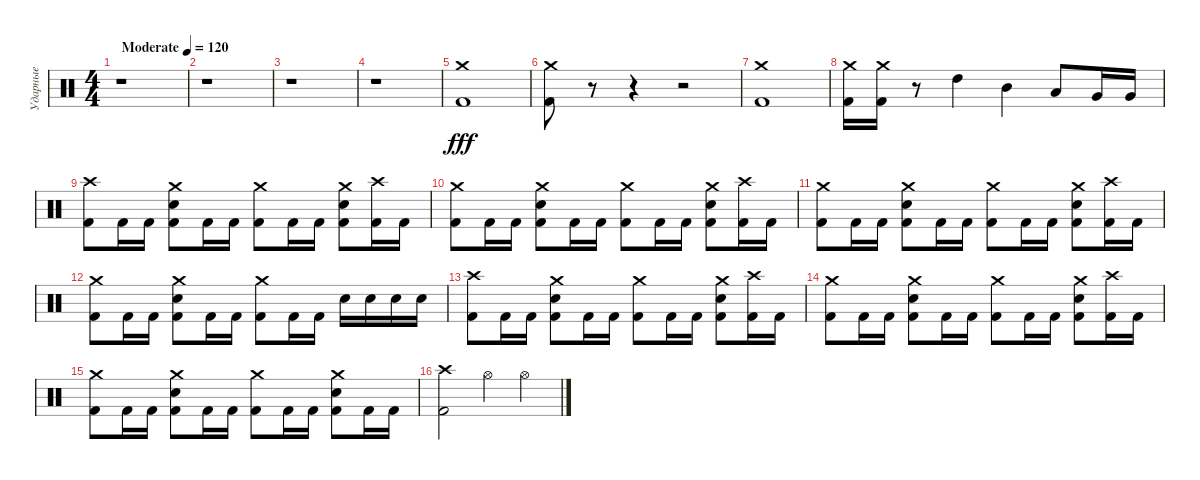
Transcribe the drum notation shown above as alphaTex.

\track ("Ударные" "Ударные") {instrument percussion}
\staff {score}
\articulation defaults
\ts (4 4)
\tempo (120 "Moderate")
\clef neutral
\ks c
r.1{dy fff} |
r.1 |
r.1 |
r.1 |
("Crash medium (hit)" "Kick (hit) 2").1 |
("Crash medium (hit)" "Kick (hit) 2").8 r.8 r.4 r.2 |
("Crash medium (hit)" "Kick (hit) 2").1 |
("Crash medium (hit)" "Kick (hit) 2").16 ("Crash medium (hit)" "Kick (hit) 2").16 r.8 "High Tom (hit)".4 "Mid Tom (hit)".4 "Low Tom (hit)".8 "Very Low Tom (hit)".16 "Very Low Tom (hit)".16 |
("Crash high (hit)" "Kick (hit) 2").8 "Kick (hit) 2".16 "Kick (hit) 2".16 ("Crash medium (hit)" "Electric Snare (hit)" "Kick (hit) 2").8 "Kick (hit) 2".16 "Kick (hit) 2".16 ("Crash medium (hit)" "Kick (hit) 2").8 "Kick (hit) 2".16 "Kick (hit) 2".16 ("Crash medium (hit)" "Electric Snare (hit)" "Kick (hit) 2").8 ("Crash high (hit)" "Kick (hit) 2").16 "Kick (hit) 2".16 |
("Crash medium (hit)" "Kick (hit) 2").8 "Kick (hit) 2".16 "Kick (hit) 2".16 ("Crash medium (hit)" "Electric Snare (hit)" "Kick (hit) 2").8 "Kick (hit) 2".16 "Kick (hit) 2".16 ("Crash medium (hit)" "Kick (hit) 2").8 "Kick (hit) 2".16 "Kick (hit) 2".16 ("Crash medium (hit)" "Electric Snare (hit)" "Kick (hit) 2").8 ("Crash high (hit)" "Kick (hit) 2").16 "Kick (hit) 2".16 |
("Crash medium (hit)" "Kick (hit) 2").8 "Kick (hit) 2".16 "Kick (hit) 2".16 ("Crash medium (hit)" "Electric Snare (hit)" "Kick (hit) 2").8 "Kick (hit) 2".16 "Kick (hit) 2".16 ("Crash medium (hit)" "Kick (hit) 2").8 "Kick (hit) 2".16 "Kick (hit) 2".16 ("Crash medium (hit)" "Electric Snare (hit)" "Kick (hit) 2").8 ("Crash high (hit)" "Kick (hit) 2").16 "Kick (hit) 2".16 |
("Crash medium (hit)" "Kick (hit) 2").8 "Kick (hit) 2".16 "Kick (hit) 2".16 ("Crash medium (hit)" "Electric Snare (hit)" "Kick (hit) 2").8 "Kick (hit) 2".16 "Kick (hit) 2".16 ("Crash medium (hit)" "Kick (hit) 2").8 "Kick (hit) 2".16 "Kick (hit) 2".16 "Electric Snare (hit)".16 "Electric Snare (hit)".16 "Electric Snare (hit)".16 "Electric Snare (hit)".16 |
("Crash high (hit)" "Kick (hit) 2").8 "Kick (hit) 2".16 "Kick (hit) 2".16 ("Crash medium (hit)" "Electric Snare (hit)" "Kick (hit) 2").8 "Kick (hit) 2".16 "Kick (hit) 2".16 ("Crash medium (hit)" "Kick (hit) 2").8 "Kick (hit) 2".16 "Kick (hit) 2".16 ("Crash medium (hit)" "Electric Snare (hit)" "Kick (hit) 2").8 ("Crash high (hit)" "Kick (hit) 2").16 "Kick (hit) 2".16 |
("Crash medium (hit)" "Kick (hit) 2").8 "Kick (hit) 2".16 "Kick (hit) 2".16 ("Crash medium (hit)" "Electric Snare (hit)" "Kick (hit) 2").8 "Kick (hit) 2".16 "Kick (hit) 2".16 ("Crash medium (hit)" "Kick (hit) 2").8 "Kick (hit) 2".16 "Kick (hit) 2".16 ("Crash medium (hit)" "Electric Snare (hit)" "Kick (hit) 2").8 ("Crash high (hit)" "Kick (hit) 2").16 "Kick (hit) 2".16 |
("Crash medium (hit)" "Kick (hit) 2").8 "Kick (hit) 2".16 "Kick (hit) 2".16 ("Crash medium (hit)" "Electric Snare (hit)" "Kick (hit) 2").8 "Kick (hit) 2".16 "Kick (hit) 2".16 ("Crash medium (hit)" "Kick (hit) 2").8 "Kick (hit) 2".16 "Kick (hit) 2".16 ("Crash medium (hit)" "Electric Snare (hit)" "Kick (hit) 2").8 "Kick (hit) 2".16 "Kick (hit) 2".16 |
("Crash high (hit)" "Kick (hit) 2").2 "Hi-Hat (open)".4 "Hi-Hat (open)".4
